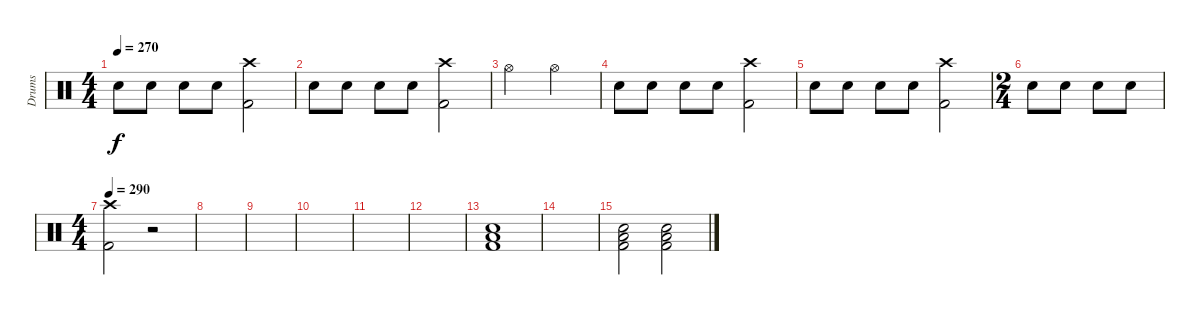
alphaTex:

\track ("Drums" "Drums") {instrument percussion}
\staff {score}
\articulation defaults
\ts (4 4)
\tempo 270
\clef neutral
\ks c "Snare (hit) 2".8{dy f} "Snare (hit) 2".8 "Snare (hit) 2".8 "Snare (hit) 2".8
("Crash high (hit)" "Kick (hit) 2").2 |
"Snare (hit) 2".8 "Snare (hit) 2".8 "Snare (hit) 2".8 "Snare (hit) 2".8 ("Crash high (hit)" "Kick (hit) 2").2 |
"Hi-Hat (open)".2 "Hi-Hat (open)".2 |
"Snare (hit) 2".8 "Snare (hit) 2".8 "Snare (hit) 2".8 "Snare (hit) 2".8 ("Crash high (hit)" "Kick (hit) 2").2 |
"Snare (hit) 2".8 "Snare (hit) 2".8 "Snare (hit) 2".8 "Snare (hit) 2".8 ("Crash high (hit)" "Kick (hit) 2").2 |
\ts (2 4)
"Snare (hit) 2".8 "Snare (hit) 2".8 "Snare (hit) 2".8 "Snare (hit) 2".8 |
\ts (4 4)
\tempo 290
("Crash high (hit)" "Kick (hit) 2").2 r.2 |
|
|
|
|
|
("Low Tom (hit)" "Snare (hit) 2" "Kick (hit) 2").1 |
|
("Snare (hit) 2" "Low Tom (hit)" "Kick (hit) 2").2 ("Snare (hit) 2" "Low Tom (hit)" "Kick (hit) 2").2
